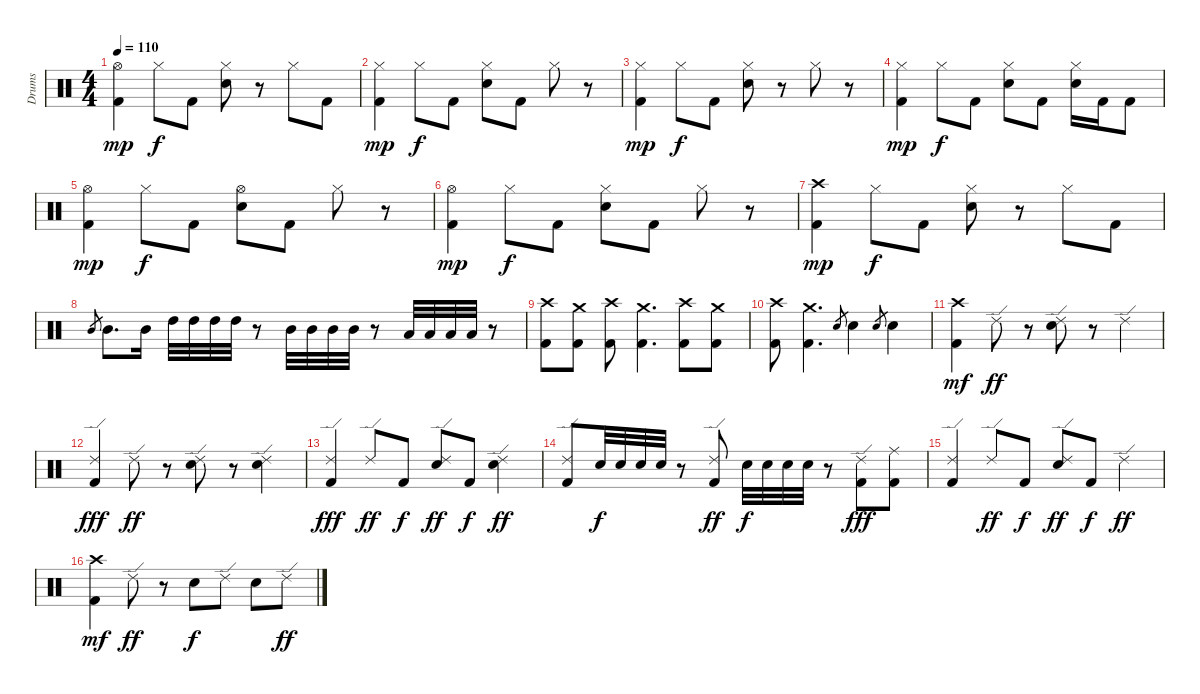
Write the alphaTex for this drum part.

\track ("Drums" "Drums") {instrument percussion}
\staff {score}
\articulation defaults
\ts (4 4)
\tempo 110
\clef neutral
\ks c
("Hi-Hat (open)" "Kick (hit) 2").4{dy mp} "Hi-Hat (closed)".8{dy f} "Kick (hit) 2".8 ("Hi-Hat (closed)" "Snare (hit) 2").8 r.8 "Hi-Hat (closed)".8 "Kick (hit) 2".8 |
("Hi-Hat (closed)" "Kick (hit) 2").4{dy mp} "Hi-Hat (closed)".8{dy f} "Kick (hit) 2".8 ("Hi-Hat (closed)" "Snare (hit) 2").8 "Kick (hit) 2".8 "Hi-Hat (closed)".8 r.8 |
("Hi-Hat (closed)" "Kick (hit) 2").4{dy mp} "Hi-Hat (closed)".8{dy f} "Kick (hit) 2".8 ("Hi-Hat (closed)" "Snare (hit) 2").8 r.8 "Hi-Hat (closed)".8 r.8 |
("Hi-Hat (closed)" "Kick (hit) 2").4{dy mp} "Hi-Hat (closed)".8{dy f} "Kick (hit) 2".8 ("Hi-Hat (closed)" "Snare (hit) 2").8 "Kick (hit) 2".8 ("Hi-Hat (closed)" "Snare (hit) 2").16 "Kick (hit) 2".16 "Kick (hit) 2".8 |
("Hi-Hat (open)" "Kick (hit) 2").4{dy mp} "Hi-Hat (closed)".8{dy f} "Kick (hit) 2".8 ("Hi-Hat (open)" "Snare (hit) 2").8 "Kick (hit) 2".8 "Hi-Hat (closed)".8 r.8 |
("Hi-Hat (open)" "Kick (hit) 2").4{dy mp} "Hi-Hat (closed)".8{dy f} "Kick (hit) 2".8 ("Hi-Hat (closed)" "Snare (hit) 2").8 "Kick (hit) 2".8 "Hi-Hat (closed)".8 r.8 |
("Crash high (hit)" "Kick (hit) 2").4{dy mp} "Hi-Hat (closed)".8{dy f} "Kick (hit) 2".8 ("Hi-Hat (closed)" "Snare (hit) 2").8 r.8 "Hi-Hat (closed)".8 "Kick (hit) 2".8 |
"Mid Tom (hit)".8{gr} "Mid Tom (hit)".8{d} "Mid Tom (hit)".16 "High Tom (hit)".32 "High Tom (hit)".32 "High Tom (hit)".32 "High Tom (hit)".32 r.8 "Mid Tom (hit)".32 "Mid Tom (hit)".32 "Mid Tom (hit)".32 "Mid Tom (hit)".32 r.8 "Low Tom (hit)".32 "Low Tom (hit)".32 "Low Tom (hit)".32 "Low Tom (hit)".32 r.8 |
("Crash high (hit)" "Kick (hit) 2").8 ("Crash medium (hit)" "Kick (hit) 2").8 ("Crash high (hit)" "Kick (hit) 2").8 ("Crash medium (hit)" "Kick (hit) 2").4{d} ("Crash high (hit)" "Kick (hit) 2").8 ("Crash medium (hit)" "Kick (hit) 2").8 |
("Crash high (hit)" "Kick (hit) 2").8 ("Crash medium (hit)" "Kick (hit) 2").4{d} "Snare (hit) 2".8{gr} "Snare (hit) 2".4 "Snare (hit) 2".8{gr} "Snare (hit) 2".4 |
("Crash high (hit)" "Kick (hit) 2").4{dy mf} "Ride (edge) 2".8{dy ff} r.8 ("Ride (edge) 2" "Snare (hit) 2").8 r.8 "Ride (edge) 2".4 |
("Ride (edge) 2" "Kick (hit) 2").4{dy fff} "Ride (edge) 2".8{dy ff} r.8 ("Ride (edge) 2" "Snare (hit) 2").8 r.8 ("Ride (edge) 2" "Snare (hit) 2").4 |
("Ride (edge) 2" "Kick (hit) 2").4{dy fff} "Ride (edge) 2".8{dy ff} "Kick (hit) 2".8{dy f} ("Ride (edge) 2" "Snare (hit) 2").8{dy ff} "Kick (hit) 2".8{dy f} ("Ride (edge) 2" "Snare (hit) 2").4{dy ff} |
("Ride (edge) 2" "Kick (hit) 2").8 "Snare (hit) 2".32{dy f} "Snare (hit) 2".32 "Snare (hit) 2".32 "Snare (hit) 2".32 r.8 ("Ride (edge) 2" "Kick (hit) 2").8{dy ff} "Snare (hit) 2".32{dy f} "Snare (hit) 2".32 "Snare (hit) 2".32 "Snare (hit) 2".32 r.8 ("Ride (edge) 2" "Kick (hit) 2").8{dy fff} ("Ride (middle)" "Kick (hit) 2").8 |
("Ride (edge) 2" "Kick (hit) 2").4 "Ride (edge) 2".8{dy ff} "Kick (hit) 2".8{dy f} ("Ride (edge) 2" "Snare (hit) 2").8{dy ff} "Kick (hit) 2".8{dy f} "Ride (edge) 2".4{dy ff} |
("Crash high (hit)" "Kick (hit) 2").4{dy mf} "Ride (edge) 2".8{dy ff} r.8 "Snare (hit) 2".8{dy f} "Ride (edge) 2".8 "Snare (hit) 2".8 "Ride (edge) 2".8{dy ff}
